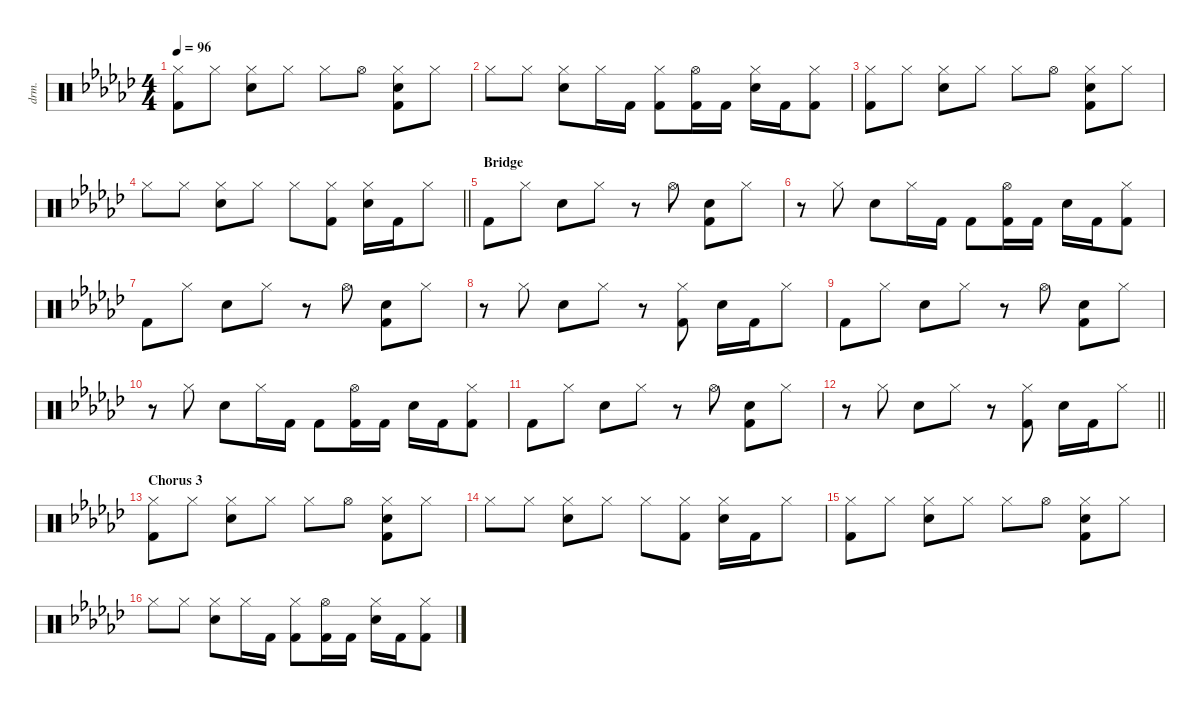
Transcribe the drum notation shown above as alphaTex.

\defaultSystemsLayout 4
\hideDynamics
\bracketExtendMode nobrackets
\otherSystemsTrackNameOrientation horizontal
\track ("Percussion" "drm.") {instrument percussion}
\staff {score}
\articulation defaults
\ts (4 4)
\tempo 96
\clef neutral
\ks gb
("Hi-Hat (closed)"{acc forcenatural} "Kick (hit) 2"{acc forcenatural}).8{dy f beam Down} "Hi-Hat (closed)"{acc forcenatural}.8{beam Down} ("Hi-Hat (closed)"{acc forcenatural} "Snare (hit) 2"{acc forcenatural}).8{beam Down} "Hi-Hat (closed)"{acc forcenatural}.8{beam Down} "Hi-Hat (closed)"{acc forcenatural}.8{beam Down} "Hi-Hat (open)"{acc forcenatural}.8{beam Down} ("Hi-Hat (closed)"{acc forcenatural} "Snare (hit) 2"{acc forcenatural} "Kick (hit) 2"{acc forcenatural}).8{beam Down} "Hi-Hat (closed)"{acc forcenatural}.8{beam Down} |
"Hi-Hat (closed)"{acc forcenatural}.8{beam Down} "Hi-Hat (closed)"{acc forcenatural}.8{beam Down} ("Hi-Hat (closed)"{acc forcenatural} "Snare (hit) 2"{acc forcenatural}).8{beam Down} "Hi-Hat (closed)"{acc forcenatural}.16{beam Down} "Kick (hit) 2"{acc forcenatural}.16{beam Down} ("Hi-Hat (closed)"{acc forcenatural} "Kick (hit) 2"{acc forcenatural}).8{beam Down} ("Hi-Hat (open)"{acc forcenatural} "Kick (hit) 2"{acc forcenatural}).16{beam Down} "Kick (hit) 2"{acc forcenatural}.16{beam Down} ("Hi-Hat (closed)"{acc forcenatural} "Snare (hit) 2"{acc forcenatural}).16{beam Down} "Kick (hit) 2"{acc forcenatural}.16{beam Down} ("Hi-Hat (closed)"{acc forcenatural} "Kick (hit) 2"{acc forcenatural}).8{beam Down} |
("Hi-Hat (closed)"{acc forcenatural} "Kick (hit) 2"{acc forcenatural}).8{beam Down} "Hi-Hat (closed)"{acc forcenatural}.8{beam Down} ("Hi-Hat (closed)"{acc forcenatural} "Snare (hit) 2"{acc forcenatural}).8{beam Down} "Hi-Hat (closed)"{acc forcenatural}.8{beam Down} "Hi-Hat (closed)"{acc forcenatural}.8{beam Down} "Hi-Hat (open)"{acc forcenatural}.8{beam Down} ("Hi-Hat (closed)"{acc forcenatural} "Snare (hit) 2"{acc forcenatural} "Kick (hit) 2"{acc forcenatural}).8{beam Down} "Hi-Hat (closed)"{acc forcenatural}.8{beam Down} |
\barLineRight lightlight "Hi-Hat (closed)"{acc forcenatural}.8{beam Down} "Hi-Hat (closed)"{acc forcenatural}.8{beam Down}
("Hi-Hat (closed)"{acc forcenatural} "Snare (hit) 2"{acc forcenatural}).8{beam Down} "Hi-Hat (closed)"{acc forcenatural}.8{beam Down} "Hi-Hat (closed)"{acc forcenatural}.8{beam Down} ("Hi-Hat (closed)"{acc forcenatural} "Kick (hit) 2"{acc forcenatural}).8{beam Down} ("Hi-Hat (closed)"{acc forcenatural} "Snare (hit) 2"{acc forcenatural}).16{beam Down} "Kick (hit) 2"{acc forcenatural}.16{beam Down} "Hi-Hat (closed)"{acc forcenatural}.8{beam Down} |
\section ("" "Bridge")
"Kick (hit) 2"{acc forcenatural}.8{beam Down} "Hi-Hat (closed)"{acc forcenatural}.8{beam Down} "Snare (hit) 2"{acc forcenatural}.8{beam Down} "Hi-Hat (closed)"{acc forcenatural}.8{beam Down} r.8{beam Down} "Hi-Hat (open)"{acc forcenatural}.8{beam Down} ("Snare (hit) 2"{acc forcenatural} "Kick (hit) 2"{acc forcenatural}).8{beam Down} "Hi-Hat (closed)"{acc forcenatural}.8{beam Down} |
r.8{beam Down} "Hi-Hat (closed)"{acc forcenatural}.8{beam Down} "Snare (hit) 2"{acc forcenatural}.8{beam Down} "Hi-Hat (closed)"{acc forcenatural}.16{beam Down} "Kick (hit) 2"{acc forcenatural}.16{beam Down} "Kick (hit) 2"{acc forcenatural}.8{beam Down} ("Hi-Hat (open)"{acc forcenatural} "Kick (hit) 2"{acc forcenatural}).16{beam Down} "Kick (hit) 2"{acc forcenatural}.16{beam Down} "Snare (hit) 2"{acc forcenatural}.16{beam Down} "Kick (hit) 2"{acc forcenatural}.16{beam Down} ("Hi-Hat (closed)"{acc forcenatural} "Kick (hit) 2"{acc forcenatural}).8{beam Down} |
"Kick (hit) 2"{acc forcenatural}.8{beam Down} "Hi-Hat (closed)"{acc forcenatural}.8{beam Down} "Snare (hit) 2"{acc forcenatural}.8{beam Down} "Hi-Hat (closed)"{acc forcenatural}.8{beam Down} r.8{beam Down} "Hi-Hat (open)"{acc forcenatural}.8{beam Down} ("Snare (hit) 2"{acc forcenatural} "Kick (hit) 2"{acc forcenatural}).8{beam Down} "Hi-Hat (closed)"{acc forcenatural}.8{beam Down} |
r.8{beam Down} "Hi-Hat (closed)"{acc forcenatural}.8{beam Down} "Snare (hit) 2"{acc forcenatural}.8{beam Down} "Hi-Hat (closed)"{acc forcenatural}.8{beam Down} r.8{beam Down} ("Hi-Hat (closed)"{acc forcenatural} "Kick (hit) 2"{acc forcenatural}).8{beam Down} "Snare (hit) 2"{acc forcenatural}.16{beam Down} "Kick (hit) 2"{acc forcenatural}.16{beam Down} "Hi-Hat (closed)"{acc forcenatural}.8{beam Down} |
"Kick (hit) 2"{acc forcenatural}.8{beam Down} "Hi-Hat (closed)"{acc forcenatural}.8{beam Down} "Snare (hit) 2"{acc forcenatural}.8{beam Down} "Hi-Hat (closed)"{acc forcenatural}.8{beam Down} r.8{beam Down} "Hi-Hat (open)"{acc forcenatural}.8{beam Down} ("Snare (hit) 2"{acc forcenatural} "Kick (hit) 2"{acc forcenatural}).8{beam Down} "Hi-Hat (closed)"{acc forcenatural}.8{beam Down} |
r.8{beam Down} "Hi-Hat (closed)"{acc forcenatural}.8{beam Down} "Snare (hit) 2"{acc forcenatural}.8{beam Down} "Hi-Hat (closed)"{acc forcenatural}.16{beam Down} "Kick (hit) 2"{acc forcenatural}.16{beam Down} "Kick (hit) 2"{acc forcenatural}.8{beam Down} ("Hi-Hat (open)"{acc forcenatural} "Kick (hit) 2"{acc forcenatural}).16{beam Down} "Kick (hit) 2"{acc forcenatural}.16{beam Down} "Snare (hit) 2"{acc forcenatural}.16{beam Down} "Kick (hit) 2"{acc forcenatural}.16{beam Down} ("Hi-Hat (closed)"{acc forcenatural} "Kick (hit) 2"{acc forcenatural}).8{beam Down} |
"Kick (hit) 2"{acc forcenatural}.8{beam Down} "Hi-Hat (closed)"{acc forcenatural}.8{beam Down} "Snare (hit) 2"{acc forcenatural}.8{beam Down} "Hi-Hat (closed)"{acc forcenatural}.8{beam Down} r.8{beam Down} "Hi-Hat (open)"{acc forcenatural}.8{beam Down} ("Snare (hit) 2"{acc forcenatural} "Kick (hit) 2"{acc forcenatural}).8{beam Down} "Hi-Hat (closed)"{acc forcenatural}.8{beam Down} |
\barLineRight lightlight
r.8{beam Down} "Hi-Hat (closed)"{acc forcenatural}.8{beam Down} "Snare (hit) 2"{acc forcenatural}.8{beam Down} "Hi-Hat (closed)"{acc forcenatural}.8{beam Down} r.8{beam Down} ("Hi-Hat (closed)"{acc forcenatural} "Kick (hit) 2"{acc forcenatural}).8{beam Down} "Snare (hit) 2"{acc forcenatural}.16{beam Down} "Kick (hit) 2"{acc forcenatural}.16{beam Down} "Hi-Hat (closed)"{acc forcenatural}.8{beam Down} |
\section ("" "Chorus 3")
("Hi-Hat (closed)"{acc forcenatural} "Kick (hit) 2"{acc forcenatural}).8{beam Down} "Hi-Hat (closed)"{acc forcenatural}.8{beam Down} ("Hi-Hat (closed)"{acc forcenatural} "Snare (hit) 2"{acc forcenatural}).8{beam Down} "Hi-Hat (closed)"{acc forcenatural}.8{beam Down} "Hi-Hat (closed)"{acc forcenatural}.8{beam Down} "Hi-Hat (open)"{acc forcenatural}.8{beam Down} ("Hi-Hat (closed)"{acc forcenatural} "Snare (hit) 2"{acc forcenatural} "Kick (hit) 2"{acc forcenatural}).8{beam Down} "Hi-Hat (closed)"{acc forcenatural}.8{beam Down} |
"Hi-Hat (closed)"{acc forcenatural}.8{beam Down} "Hi-Hat (closed)"{acc forcenatural}.8{beam Down} ("Hi-Hat (closed)"{acc forcenatural} "Snare (hit) 2"{acc forcenatural}).8{beam Down} "Hi-Hat (closed)"{acc forcenatural}.8{beam Down} "Hi-Hat (closed)"{acc forcenatural}.8{beam Down} ("Hi-Hat (closed)"{acc forcenatural} "Kick (hit) 2"{acc forcenatural}).8{beam Down} ("Hi-Hat (closed)"{acc forcenatural} "Snare (hit) 2"{acc forcenatural}).16{beam Down} "Kick (hit) 2"{acc forcenatural}.16{beam Down} "Hi-Hat (closed)"{acc forcenatural}.8{beam Down} |
("Hi-Hat (closed)"{acc forcenatural} "Kick (hit) 2"{acc forcenatural}).8{beam Down} "Hi-Hat (closed)"{acc forcenatural}.8{beam Down} ("Hi-Hat (closed)"{acc forcenatural} "Snare (hit) 2"{acc forcenatural}).8{beam Down} "Hi-Hat (closed)"{acc forcenatural}.8{beam Down} "Hi-Hat (closed)"{acc forcenatural}.8{beam Down} "Hi-Hat (open)"{acc forcenatural}.8{beam Down} ("Hi-Hat (closed)"{acc forcenatural} "Snare (hit) 2"{acc forcenatural} "Kick (hit) 2"{acc forcenatural}).8{beam Down} "Hi-Hat (closed)"{acc forcenatural}.8{beam Down} |
"Hi-Hat (closed)"{acc forcenatural}.8{beam Down} "Hi-Hat (closed)"{acc forcenatural}.8{beam Down} ("Hi-Hat (closed)"{acc forcenatural} "Snare (hit) 2"{acc forcenatural}).8{beam Down} "Hi-Hat (closed)"{acc forcenatural}.16{beam Down} "Kick (hit) 2"{acc forcenatural}.16{beam Down} ("Hi-Hat (closed)"{acc forcenatural} "Kick (hit) 2"{acc forcenatural}).8{beam Down} ("Hi-Hat (open)"{acc forcenatural} "Kick (hit) 2"{acc forcenatural}).16{beam Down} "Kick (hit) 2"{acc forcenatural}.16{beam Down} ("Hi-Hat (closed)"{acc forcenatural} "Snare (hit) 2"{acc forcenatural}).16{beam Down} "Kick (hit) 2"{acc forcenatural}.16{beam Down} ("Hi-Hat (closed)"{acc forcenatural} "Kick (hit) 2"{acc forcenatural}).8{beam Down}
